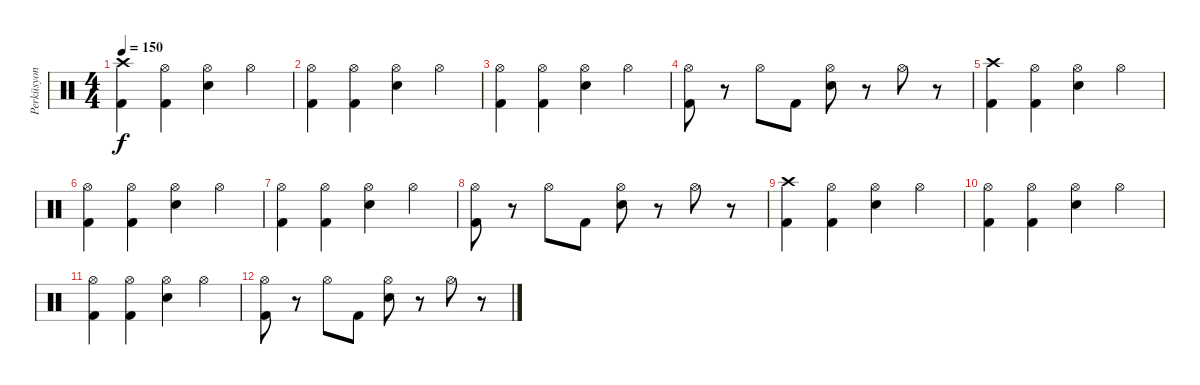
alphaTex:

\track ("Perküsyon" "Perküsyon") {instrument percussion}
\staff {score}
\articulation defaults
\ts (4 4)
\tempo 150
\clef neutral
\ks c
("Crash high (hit)" "Kick (hit) 2").4{dy f} ("Hi-Hat (open)" "Kick (hit) 2").4 ("Hi-Hat (open)" "Electric Snare (hit)").4 "Hi-Hat (open)".4 |
("Hi-Hat (open)" "Kick (hit) 2").4 ("Hi-Hat (open)" "Kick (hit) 2").4 ("Hi-Hat (open)" "Electric Snare (hit)").4 "Hi-Hat (open)".4 |
("Hi-Hat (open)" "Kick (hit) 2").4 ("Hi-Hat (open)" "Kick (hit) 2").4 ("Hi-Hat (open)" "Electric Snare (hit)").4 "Hi-Hat (open)".4 |
("Hi-Hat (open)" "Kick (hit) 2").8 r.8 "Hi-Hat (open)".8 "Kick (hit) 2".8 ("Hi-Hat (open)" "Electric Snare (hit)").8 r.8 "Hi-Hat (open)".8 r.8 |
("Crash high (hit)" "Kick (hit) 2").4 ("Hi-Hat (open)" "Kick (hit) 2").4 ("Hi-Hat (open)" "Electric Snare (hit)").4 "Hi-Hat (open)".4 |
("Hi-Hat (open)" "Kick (hit) 2").4 ("Hi-Hat (open)" "Kick (hit) 2").4 ("Hi-Hat (open)" "Electric Snare (hit)").4 "Hi-Hat (open)".4 |
("Hi-Hat (open)" "Kick (hit) 2").4 ("Hi-Hat (open)" "Kick (hit) 2").4 ("Hi-Hat (open)" "Electric Snare (hit)").4 "Hi-Hat (open)".4 |
("Hi-Hat (open)" "Kick (hit) 2").8 r.8 "Hi-Hat (open)".8 "Kick (hit) 2".8 ("Hi-Hat (open)" "Electric Snare (hit)").8 r.8 "Hi-Hat (open)".8 r.8 |
("Crash high (hit)" "Kick (hit) 2").4 ("Hi-Hat (open)" "Kick (hit) 2").4 ("Hi-Hat (open)" "Electric Snare (hit)").4 "Hi-Hat (open)".4 |
("Hi-Hat (open)" "Kick (hit) 2").4 ("Hi-Hat (open)" "Kick (hit) 2").4 ("Hi-Hat (open)" "Electric Snare (hit)").4 "Hi-Hat (open)".4 |
("Hi-Hat (open)" "Kick (hit) 2").4 ("Hi-Hat (open)" "Kick (hit) 2").4 ("Hi-Hat (open)" "Electric Snare (hit)").4 "Hi-Hat (open)".4 |
("Hi-Hat (open)" "Kick (hit) 2").8 r.8 "Hi-Hat (open)".8 "Kick (hit) 2".8 ("Hi-Hat (open)" "Electric Snare (hit)").8 r.8 "Hi-Hat (open)".8 r.8
